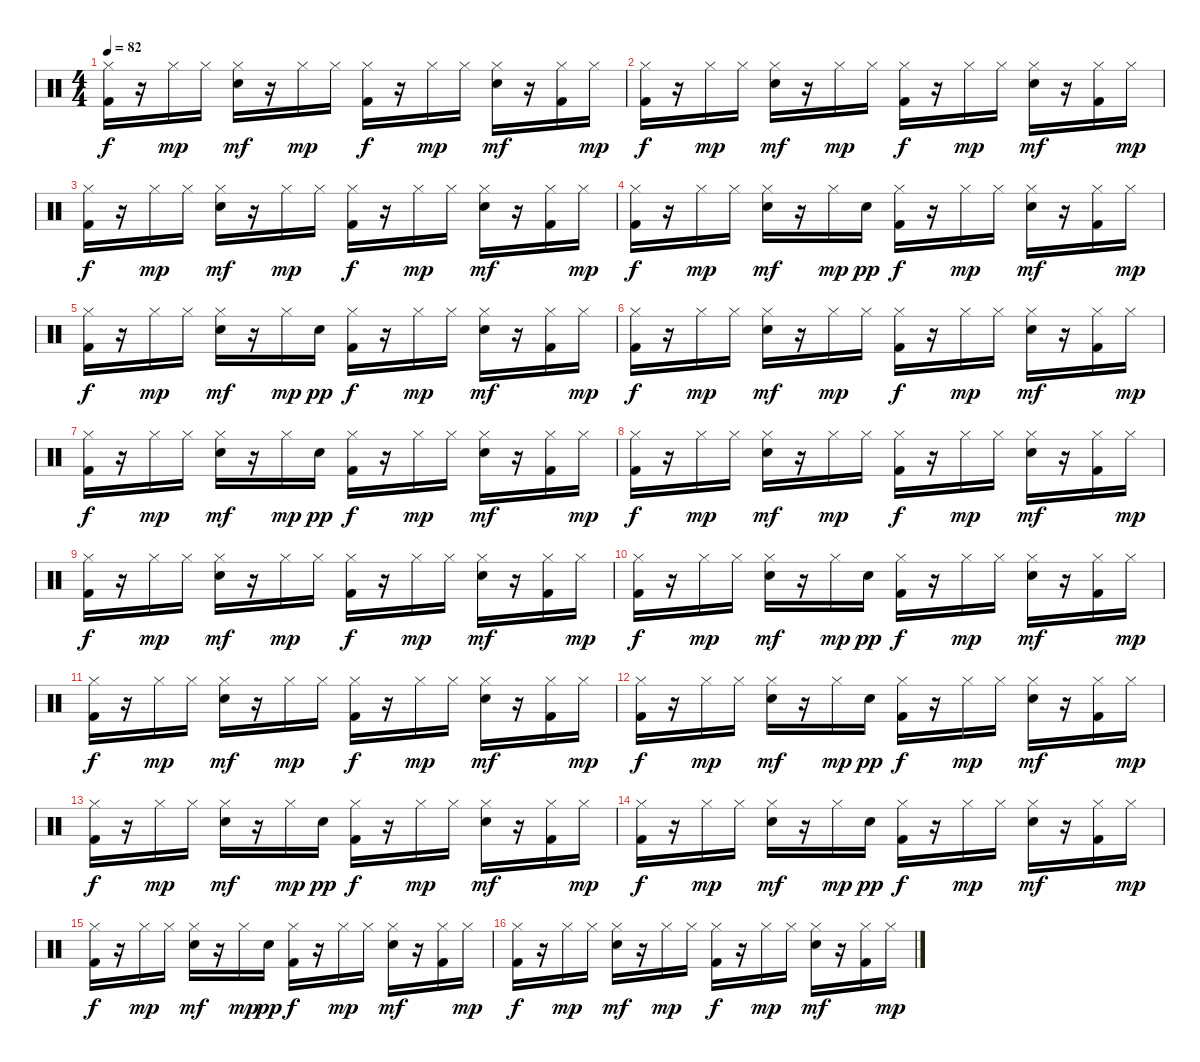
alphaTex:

\track "" {instrument percussion}
\staff {score}
\articulation defaults
\ts (4 4)
\tempo 82
\clef neutral
\ks c
("Hi-Hat (closed)" "Kick (hit) 2").16{dy f} r.16 "Hi-Hat (closed)".16{dy mp} "Hi-Hat (closed)".16 ("Hi-Hat (closed)" "Snare (hit) 2").16{dy mf} r.16 "Hi-Hat (closed)".16{dy mp} "Hi-Hat (closed)".16 ("Hi-Hat (closed)" "Kick (hit) 2").16{dy f} r.16 "Hi-Hat (closed)".16{dy mp} "Hi-Hat (closed)".16 ("Hi-Hat (closed)" "Snare (hit) 2").16{dy mf} r.16 ("Hi-Hat (closed)" "Kick (hit) 2").16 "Hi-Hat (closed)".16{dy mp} |
("Hi-Hat (closed)" "Kick (hit) 2").16{dy f} r.16 "Hi-Hat (closed)".16{dy mp} "Hi-Hat (closed)".16 ("Hi-Hat (closed)" "Snare (hit) 2").16{dy mf} r.16 "Hi-Hat (closed)".16{dy mp} "Hi-Hat (closed)".16 ("Hi-Hat (closed)" "Kick (hit) 2").16{dy f} r.16 "Hi-Hat (closed)".16{dy mp} "Hi-Hat (closed)".16 ("Hi-Hat (closed)" "Snare (hit) 2").16{dy mf} r.16 ("Hi-Hat (closed)" "Kick (hit) 2").16 "Hi-Hat (closed)".16{dy mp} |
("Hi-Hat (closed)" "Kick (hit) 2").16{dy f} r.16 "Hi-Hat (closed)".16{dy mp} "Hi-Hat (closed)".16 ("Hi-Hat (closed)" "Snare (hit) 2").16{dy mf} r.16 "Hi-Hat (closed)".16{dy mp} "Hi-Hat (closed)".16 ("Hi-Hat (closed)" "Kick (hit) 2").16{dy f} r.16 "Hi-Hat (closed)".16{dy mp} "Hi-Hat (closed)".16 ("Hi-Hat (closed)" "Snare (hit) 2").16{dy mf} r.16 ("Hi-Hat (closed)" "Kick (hit) 2").16 "Hi-Hat (closed)".16{dy mp} |
("Hi-Hat (closed)" "Kick (hit) 2").16{dy f} r.16 "Hi-Hat (closed)".16{dy mp} "Hi-Hat (closed)".16 ("Hi-Hat (closed)" "Snare (hit) 2").16{dy mf} r.16 "Hi-Hat (closed)".16{dy mp} "Snare (hit) 2".16{dy pp} ("Hi-Hat (closed)" "Kick (hit) 2").16{dy f} r.16 "Hi-Hat (closed)".16{dy mp} "Hi-Hat (closed)".16 ("Hi-Hat (closed)" "Snare (hit) 2").16{dy mf} r.16 ("Hi-Hat (closed)" "Kick (hit) 2").16 "Hi-Hat (closed)".16{dy mp} |
("Hi-Hat (closed)" "Kick (hit) 2").16{dy f} r.16 "Hi-Hat (closed)".16{dy mp} "Hi-Hat (closed)".16 ("Hi-Hat (closed)" "Snare (hit) 2").16{dy mf} r.16 "Hi-Hat (closed)".16{dy mp} "Snare (hit) 2".16{dy pp} ("Hi-Hat (closed)" "Kick (hit) 2").16{dy f} r.16 "Hi-Hat (closed)".16{dy mp} "Hi-Hat (closed)".16 ("Hi-Hat (closed)" "Snare (hit) 2").16{dy mf} r.16 ("Hi-Hat (closed)" "Kick (hit) 2").16 "Hi-Hat (closed)".16{dy mp} |
("Hi-Hat (closed)" "Kick (hit) 2").16{dy f} r.16 "Hi-Hat (closed)".16{dy mp} "Hi-Hat (closed)".16 ("Hi-Hat (closed)" "Snare (hit) 2").16{dy mf} r.16 "Hi-Hat (closed)".16{dy mp} "Hi-Hat (closed)".16 ("Hi-Hat (closed)" "Kick (hit) 2").16{dy f} r.16 "Hi-Hat (closed)".16{dy mp} "Hi-Hat (closed)".16 ("Hi-Hat (closed)" "Snare (hit) 2").16{dy mf} r.16 ("Hi-Hat (closed)" "Kick (hit) 2").16 "Hi-Hat (closed)".16{dy mp} |
("Hi-Hat (closed)" "Kick (hit) 2").16{dy f} r.16 "Hi-Hat (closed)".16{dy mp} "Hi-Hat (closed)".16 ("Hi-Hat (closed)" "Snare (hit) 2").16{dy mf} r.16 "Hi-Hat (closed)".16{dy mp} "Snare (hit) 2".16{dy pp} ("Hi-Hat (closed)" "Kick (hit) 2").16{dy f} r.16 "Hi-Hat (closed)".16{dy mp} "Hi-Hat (closed)".16 ("Hi-Hat (closed)" "Snare (hit) 2").16{dy mf} r.16 ("Hi-Hat (closed)" "Kick (hit) 2").16 "Hi-Hat (closed)".16{dy mp} |
("Hi-Hat (closed)" "Kick (hit) 2").16{dy f} r.16 "Hi-Hat (closed)".16{dy mp} "Hi-Hat (closed)".16 ("Hi-Hat (closed)" "Snare (hit) 2").16{dy mf} r.16 "Hi-Hat (closed)".16{dy mp} "Hi-Hat (closed)".16 ("Hi-Hat (closed)" "Kick (hit) 2").16{dy f} r.16 "Hi-Hat (closed)".16{dy mp} "Hi-Hat (closed)".16 ("Hi-Hat (closed)" "Snare (hit) 2").16{dy mf} r.16 ("Hi-Hat (closed)" "Kick (hit) 2").16 "Hi-Hat (closed)".16{dy mp} |
("Hi-Hat (closed)" "Kick (hit) 2").16{dy f} r.16 "Hi-Hat (closed)".16{dy mp} "Hi-Hat (closed)".16 ("Hi-Hat (closed)" "Snare (hit) 2").16{dy mf} r.16 "Hi-Hat (closed)".16{dy mp} "Hi-Hat (closed)".16 ("Hi-Hat (closed)" "Kick (hit) 2").16{dy f} r.16 "Hi-Hat (closed)".16{dy mp} "Hi-Hat (closed)".16 ("Hi-Hat (closed)" "Snare (hit) 2").16{dy mf} r.16 ("Hi-Hat (closed)" "Kick (hit) 2").16 "Hi-Hat (closed)".16{dy mp} |
("Hi-Hat (closed)" "Kick (hit) 2").16{dy f} r.16 "Hi-Hat (closed)".16{dy mp} "Hi-Hat (closed)".16 ("Hi-Hat (closed)" "Snare (hit) 2").16{dy mf} r.16 "Hi-Hat (closed)".16{dy mp} "Snare (hit) 2".16{dy pp} ("Hi-Hat (closed)" "Kick (hit) 2").16{dy f} r.16 "Hi-Hat (closed)".16{dy mp} "Hi-Hat (closed)".16 ("Hi-Hat (closed)" "Snare (hit) 2").16{dy mf} r.16 ("Hi-Hat (closed)" "Kick (hit) 2").16 "Hi-Hat (closed)".16{dy mp} |
("Hi-Hat (closed)" "Kick (hit) 2").16{dy f} r.16 "Hi-Hat (closed)".16{dy mp} "Hi-Hat (closed)".16 ("Hi-Hat (closed)" "Snare (hit) 2").16{dy mf} r.16 "Hi-Hat (closed)".16{dy mp} "Hi-Hat (closed)".16 ("Hi-Hat (closed)" "Kick (hit) 2").16{dy f} r.16 "Hi-Hat (closed)".16{dy mp} "Hi-Hat (closed)".16 ("Hi-Hat (closed)" "Snare (hit) 2").16{dy mf} r.16 ("Hi-Hat (closed)" "Kick (hit) 2").16 "Hi-Hat (closed)".16{dy mp} |
("Hi-Hat (closed)" "Kick (hit) 2").16{dy f} r.16 "Hi-Hat (closed)".16{dy mp} "Hi-Hat (closed)".16 ("Hi-Hat (closed)" "Snare (hit) 2").16{dy mf} r.16 "Hi-Hat (closed)".16{dy mp} "Snare (hit) 2".16{dy pp} ("Hi-Hat (closed)" "Kick (hit) 2").16{dy f} r.16 "Hi-Hat (closed)".16{dy mp} "Hi-Hat (closed)".16 ("Hi-Hat (closed)" "Snare (hit) 2").16{dy mf} r.16 ("Hi-Hat (closed)" "Kick (hit) 2").16 "Hi-Hat (closed)".16{dy mp} |
("Hi-Hat (closed)" "Kick (hit) 2").16{dy f} r.16 "Hi-Hat (closed)".16{dy mp} "Hi-Hat (closed)".16 ("Hi-Hat (closed)" "Snare (hit) 2").16{dy mf} r.16 "Hi-Hat (closed)".16{dy mp} "Snare (hit) 2".16{dy pp} ("Hi-Hat (closed)" "Kick (hit) 2").16{dy f} r.16 "Hi-Hat (closed)".16{dy mp} "Hi-Hat (closed)".16 ("Hi-Hat (closed)" "Snare (hit) 2").16{dy mf} r.16 ("Hi-Hat (closed)" "Kick (hit) 2").16 "Hi-Hat (closed)".16{dy mp} |
("Hi-Hat (closed)" "Kick (hit) 2").16{dy f} r.16 "Hi-Hat (closed)".16{dy mp} "Hi-Hat (closed)".16 ("Hi-Hat (closed)" "Snare (hit) 2").16{dy mf} r.16 "Hi-Hat (closed)".16{dy mp} "Snare (hit) 2".16{dy pp} ("Hi-Hat (closed)" "Kick (hit) 2").16{dy f} r.16 "Hi-Hat (closed)".16{dy mp} "Hi-Hat (closed)".16 ("Hi-Hat (closed)" "Snare (hit) 2").16{dy mf} r.16 ("Hi-Hat (closed)" "Kick (hit) 2").16 "Hi-Hat (closed)".16{dy mp} |
("Hi-Hat (closed)" "Kick (hit) 2").16{dy f} r.16 "Hi-Hat (closed)".16{dy mp} "Hi-Hat (closed)".16 ("Hi-Hat (closed)" "Snare (hit) 2").16{dy mf} r.16 "Hi-Hat (closed)".16{dy mp} "Snare (hit) 2".16{dy pp} ("Hi-Hat (closed)" "Kick (hit) 2").16{dy f} r.16 "Hi-Hat (closed)".16{dy mp} "Hi-Hat (closed)".16 ("Hi-Hat (closed)" "Snare (hit) 2").16{dy mf} r.16 ("Hi-Hat (closed)" "Kick (hit) 2").16 "Hi-Hat (closed)".16{dy mp} |
("Hi-Hat (closed)" "Kick (hit) 2").16{dy f} r.16 "Hi-Hat (closed)".16{dy mp} "Hi-Hat (closed)".16 ("Hi-Hat (closed)" "Snare (hit) 2").16{dy mf} r.16 "Hi-Hat (closed)".16{dy mp} "Hi-Hat (closed)".16 ("Hi-Hat (closed)" "Kick (hit) 2").16{dy f} r.16 "Hi-Hat (closed)".16{dy mp} "Hi-Hat (closed)".16 ("Hi-Hat (closed)" "Snare (hit) 2").16{dy mf} r.16 ("Hi-Hat (closed)" "Kick (hit) 2").16 "Hi-Hat (closed)".16{dy mp}
